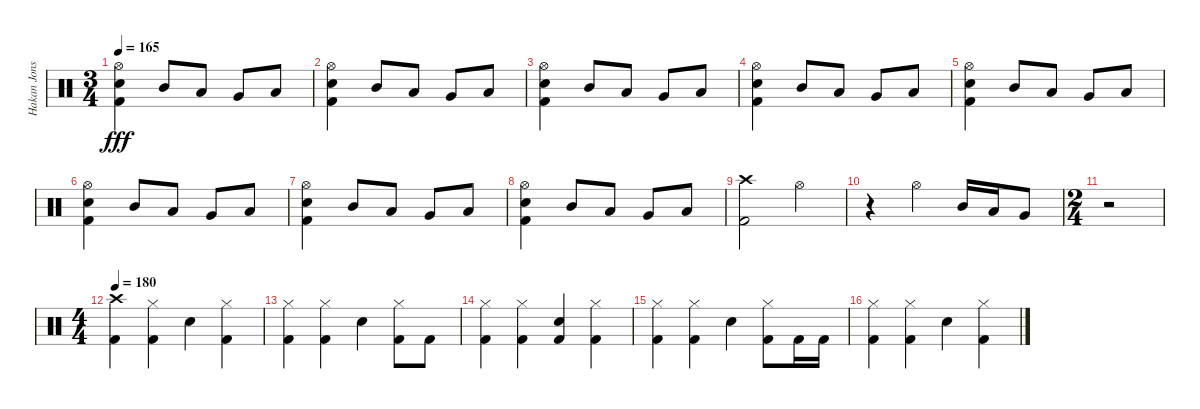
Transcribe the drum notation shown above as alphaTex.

\track ("Hakan Jonsson" "Hakan Jons") {instrument percussion}
\staff {score}
\articulation defaults
\ts (3 4)
\tempo 165
\clef neutral
\ks c
("Hi-Hat (open)" "Electric Snare (hit)" "Kick (hit) 2").4{dy fff} "Mid Tom (hit)".8 "Low Tom (hit)".8 "Very Low Tom (hit)".8 "Low Floor Tom (hit)".8 |
("Hi-Hat (open)" "Electric Snare (hit)" "Kick (hit) 2").4 "Mid Tom (hit)".8 "Low Tom (hit)".8 "Very Low Tom (hit)".8 "Low Floor Tom (hit)".8 |
("Hi-Hat (open)" "Electric Snare (hit)" "Kick (hit) 2").4 "Mid Tom (hit)".8 "Low Tom (hit)".8 "Very Low Tom (hit)".8 "Low Floor Tom (hit)".8 |
("Hi-Hat (open)" "Electric Snare (hit)" "Kick (hit) 2").4 "Mid Tom (hit)".8 "Low Tom (hit)".8 "Very Low Tom (hit)".8 "Low Floor Tom (hit)".8 |
("Hi-Hat (open)" "Electric Snare (hit)" "Kick (hit) 2").4 "Mid Tom (hit)".8 "Low Tom (hit)".8 "Very Low Tom (hit)".8 "Low Floor Tom (hit)".8 |
("Hi-Hat (open)" "Electric Snare (hit)" "Kick (hit) 2").4 "Mid Tom (hit)".8 "Low Tom (hit)".8 "Very Low Tom (hit)".8 "Low Floor Tom (hit)".8 |
("Hi-Hat (open)" "Electric Snare (hit)" "Kick (hit) 2").4 "Mid Tom (hit)".8 "Low Tom (hit)".8 "Very Low Tom (hit)".8 "Low Floor Tom (hit)".8 |
("Hi-Hat (open)" "Electric Snare (hit)" "Kick (hit) 2").4 "Mid Tom (hit)".8 "Low Tom (hit)".8 "Very Low Tom (hit)".8 "Low Floor Tom (hit)".8 |
("Crash high (hit)" "Kick (hit) 2").2 "Hi-Hat (open)".4 |
r.4 "Hi-Hat (open)".4 "Mid Tom (hit)".16 "Low Tom (hit)".16 "Very Low Tom (hit)".8 |
\ts (2 4)
r.2 |
\ts (4 4)
\tempo 180
("Crash high (hit)" "Kick (hit) 2").4 ("Hi-Hat (closed)" "Kick (hit) 2").4 "Electric Snare (hit)".4 ("Hi-Hat (closed)" "Kick (hit) 2").4 |
("Hi-Hat (closed)" "Kick (hit) 2").4 ("Hi-Hat (closed)" "Kick (hit) 2").4 "Electric Snare (hit)".4 ("Hi-Hat (closed)" "Kick (hit) 2").8 "Kick (hit) 2".8 |
("Hi-Hat (closed)" "Kick (hit) 2").4 ("Hi-Hat (closed)" "Kick (hit) 2").4 ("Electric Snare (hit)" "Kick (hit) 2").4 ("Hi-Hat (closed)" "Kick (hit) 2").4 |
("Hi-Hat (closed)" "Kick (hit) 2").4 ("Hi-Hat (closed)" "Kick (hit) 2").4 "Electric Snare (hit)".4 ("Hi-Hat (closed)" "Kick (hit) 2").8 "Kick (hit) 2".16 "Kick (hit) 2".16 |
("Hi-Hat (closed)" "Kick (hit) 2").4 ("Hi-Hat (closed)" "Kick (hit) 2").4 "Electric Snare (hit)".4 ("Hi-Hat (closed)" "Kick (hit) 2").4
